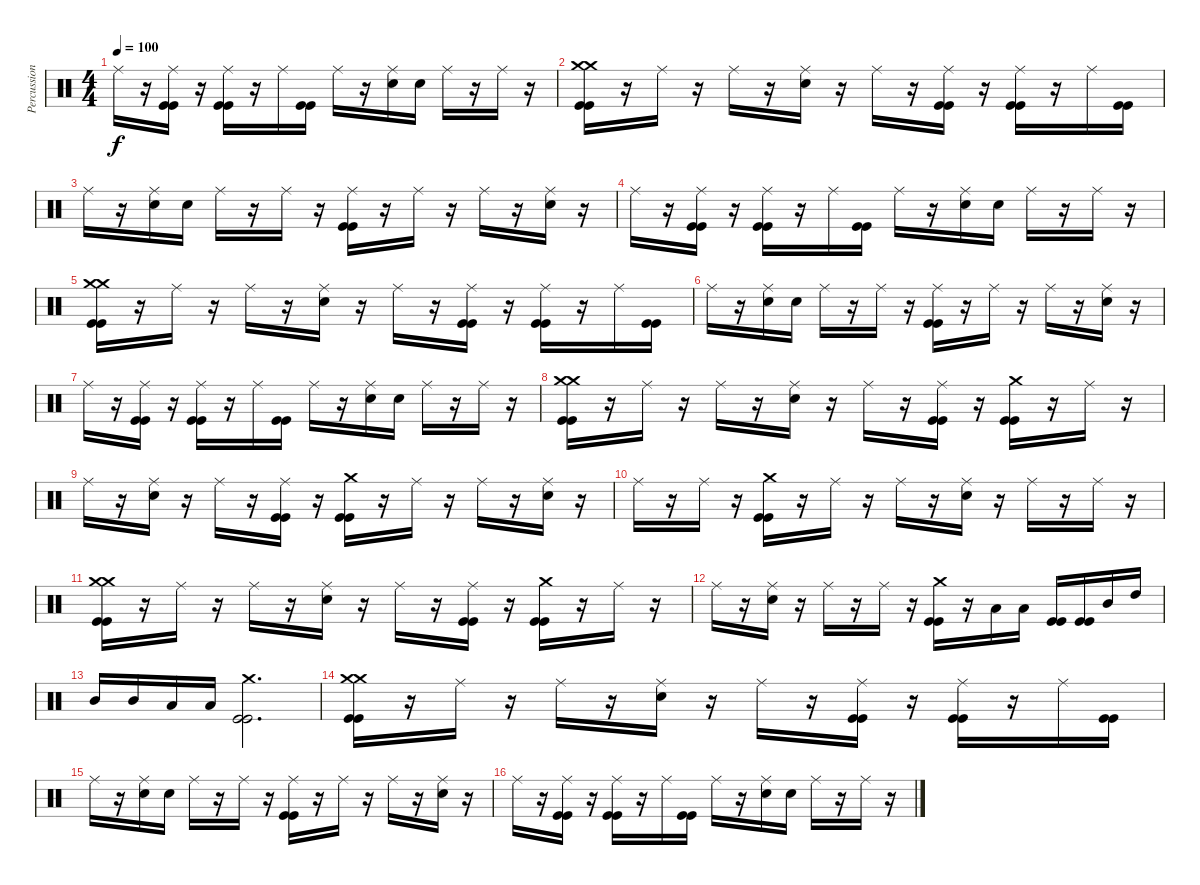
\track ("Percussion" "Percussion") {instrument percussion}
\staff {score}
\articulation defaults
\ts (4 4)
\tempo 100
\clef neutral
\ks c "Ride (middle)".16{dy f}
r.16 ("Ride (middle)" "Kick (hit)" "Kick (hit)").16 r.16 ("Ride (middle)" "Kick (hit)" "Kick (hit)").16 r.16 "Ride (middle)".16 ("Kick (hit)" "Kick (hit)").16 "Ride (middle)".16 r.16 ("Ride (middle)" "Snare (hit) 2").16 "Snare (hit) 2".16 "Ride (middle)".16 r.16 "Ride (middle)".16 r.16 |
("Crash medium (hit)" "Crash medium (hit)" "Kick (hit)" "Kick (hit)").16 r.16 "Ride (middle)".16 r.16 "Ride (middle)".16 r.16 ("Ride (middle)" "Snare (hit) 2").16 r.16 "Ride (middle)".16 r.16 ("Ride (middle)" "Kick (hit)" "Kick (hit)").16 r.16 ("Ride (middle)" "Kick (hit)" "Kick (hit)").16 r.16 "Ride (middle)".16 ("Kick (hit)" "Kick (hit)").16 |
"Ride (middle)".16 r.16 ("Ride (middle)" "Snare (hit) 2").16 "Snare (hit) 2".16 "Ride (middle)".16 r.16 "Ride (middle)".16 r.16 ("Ride (middle)" "Kick (hit)" "Kick (hit)").16 r.16 "Ride (middle)".16 r.16 "Ride (middle)".16 r.16 ("Ride (middle)" "Snare (hit) 2").16 r.16 |
"Ride (middle)".16 r.16 ("Ride (middle)" "Kick (hit)" "Kick (hit)").16 r.16 ("Ride (middle)" "Kick (hit)" "Kick (hit)").16 r.16 "Ride (middle)".16 ("Kick (hit)" "Kick (hit)").16 "Ride (middle)".16 r.16 ("Ride (middle)" "Snare (hit) 2").16 "Snare (hit) 2".16 "Ride (middle)".16 r.16 "Ride (middle)".16 r.16 |
("Crash medium (hit)" "Crash medium (hit)" "Kick (hit)" "Kick (hit)").16 r.16 "Ride (middle)".16 r.16 "Ride (middle)".16 r.16 ("Ride (middle)" "Snare (hit) 2").16 r.16 "Ride (middle)".16 r.16 ("Ride (middle)" "Kick (hit)" "Kick (hit)").16 r.16 ("Ride (middle)" "Kick (hit)" "Kick (hit)").16 r.16 "Ride (middle)".16 ("Kick (hit)" "Kick (hit)").16 |
"Ride (middle)".16 r.16 ("Ride (middle)" "Snare (hit) 2").16 "Snare (hit) 2".16 "Ride (middle)".16 r.16 "Ride (middle)".16 r.16 ("Ride (middle)" "Kick (hit)" "Kick (hit)").16 r.16 "Ride (middle)".16 r.16 "Ride (middle)".16 r.16 ("Ride (middle)" "Snare (hit) 2").16 r.16 |
"Ride (middle)".16 r.16 ("Ride (middle)" "Kick (hit)" "Kick (hit)").16 r.16 ("Ride (middle)" "Kick (hit)" "Kick (hit)").16 r.16 "Ride (middle)".16 ("Kick (hit)" "Kick (hit)").16 "Ride (middle)".16 r.16 ("Ride (middle)" "Snare (hit) 2").16 "Snare (hit) 2".16 "Ride (middle)".16 r.16 "Ride (middle)".16 r.16 |
("Crash medium (hit)" "Crash medium (hit)" "Kick (hit)" "Kick (hit)").16 r.16 "Ride (middle)".16 r.16 "Ride (middle)".16 r.16 ("Ride (middle)" "Snare (hit) 2").16 r.16 "Ride (middle)".16 r.16 ("Ride (middle)" "Kick (hit)" "Kick (hit)").16 r.16 ("Crash medium (hit)" "Kick (hit)" "Kick (hit)").16 r.16 "Ride (middle)".16 r.16 |
"Ride (middle)".16 r.16 ("Ride (middle)" "Snare (hit) 2").16 r.16 "Ride (middle)".16 r.16 ("Ride (middle)" "Kick (hit)" "Kick (hit)").16 r.16 ("Crash medium (hit)" "Kick (hit)" "Kick (hit)").16 r.16 "Ride (middle)".16 r.16 "Ride (middle)".16 r.16 ("Ride (middle)" "Snare (hit) 2").16 r.16 |
"Ride (middle)".16 r.16 "Ride (middle)".16 r.16 ("Crash medium (hit)" "Kick (hit)" "Kick (hit)").16 r.16 "Ride (middle)".16 r.16 "Ride (middle)".16 r.16 ("Ride (middle)" "Snare (hit) 2").16 r.16 "Ride (middle)".16 r.16 "Ride (middle)".16 r.16 |
("Crash medium (hit)" "Crash medium (hit)" "Kick (hit)" "Kick (hit)").16 r.16 "Ride (middle)".16 r.16 "Ride (middle)".16 r.16 ("Ride (middle)" "Snare (hit) 2").16 r.16 "Ride (middle)".16 r.16 ("Ride (middle)" "Kick (hit)" "Kick (hit)").16 r.16 ("Crash medium (hit)" "Kick (hit)" "Kick (hit)").16 r.16 "Ride (middle)".16 r.16 |
"Ride (middle)".16 r.16 ("Ride (middle)" "Snare (hit) 2").16 r.16 "Ride (middle)".16 r.16 "Ride (middle)".16 r.16 ("Crash medium (hit)" "Kick (hit)" "Kick (hit)").16 r.16 "Low Tom (hit)".16 "Low Tom (hit)".16 ("Kick (hit)" "Kick (hit)").16 ("Kick (hit)" "Kick (hit)").16 "Mid Tom (hit)".16 "High Tom (hit)".16 |
"Mid Tom (hit)".16 "Mid Tom (hit)".16 "Low Tom (hit)".16 "Low Tom (hit)".16 ("Crash medium (hit)" "Kick (hit)" "Kick (hit)").2{d} |
("Crash medium (hit)" "Crash medium (hit)" "Kick (hit)" "Kick (hit)").16 r.16 "Ride (middle)".16 r.16 "Ride (middle)".16 r.16 ("Ride (middle)" "Snare (hit) 2").16 r.16 "Ride (middle)".16 r.16 ("Ride (middle)" "Kick (hit)" "Kick (hit)").16 r.16 ("Ride (middle)" "Kick (hit)" "Kick (hit)").16 r.16 "Ride (middle)".16 ("Kick (hit)" "Kick (hit)").16 |
"Ride (middle)".16 r.16 ("Ride (middle)" "Snare (hit) 2").16 "Snare (hit) 2".16 "Ride (middle)".16 r.16 "Ride (middle)".16 r.16 ("Ride (middle)" "Kick (hit)" "Kick (hit)").16 r.16 "Ride (middle)".16 r.16 "Ride (middle)".16 r.16 ("Ride (middle)" "Snare (hit) 2").16 r.16 |
"Ride (middle)".16 r.16 ("Ride (middle)" "Kick (hit)" "Kick (hit)").16 r.16 ("Ride (middle)" "Kick (hit)" "Kick (hit)").16 r.16 "Ride (middle)".16 ("Kick (hit)" "Kick (hit)").16 "Ride (middle)".16 r.16 ("Ride (middle)" "Snare (hit) 2").16 "Snare (hit) 2".16 "Ride (middle)".16 r.16 "Ride (middle)".16 r.16
